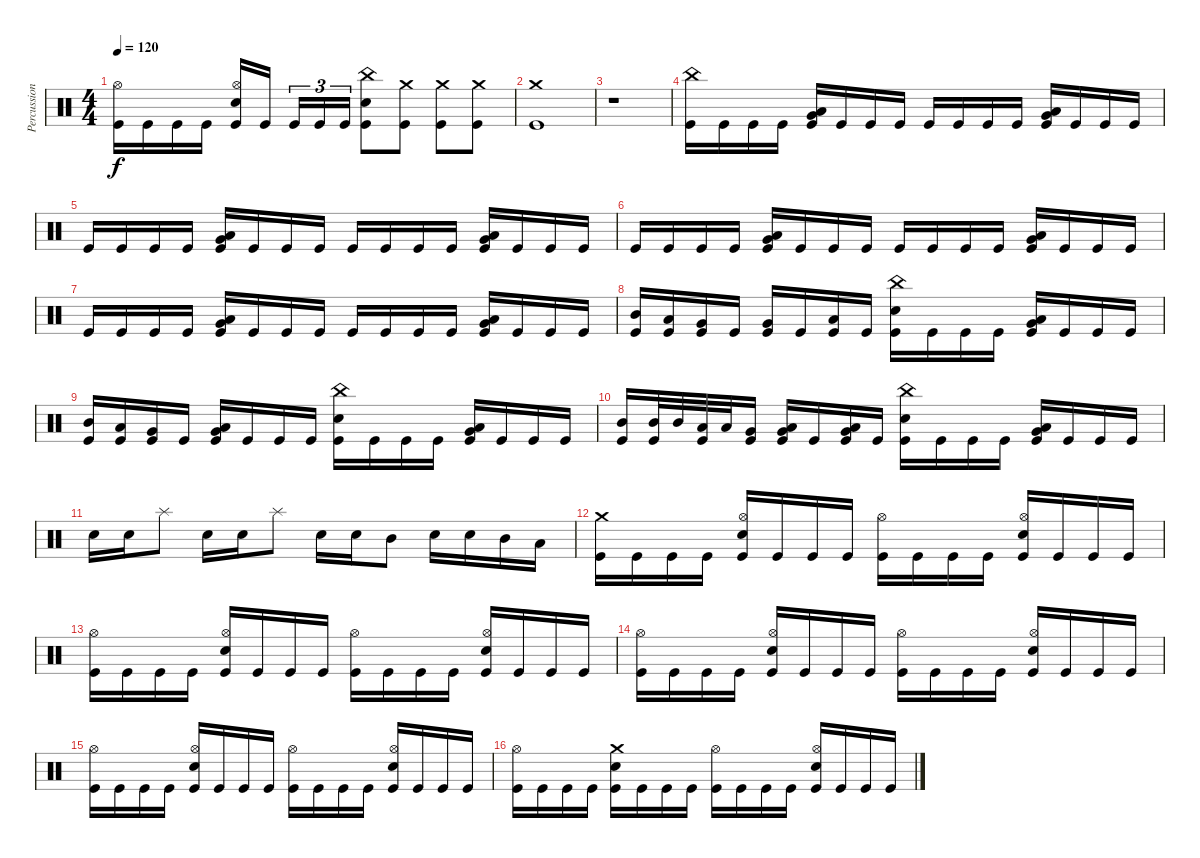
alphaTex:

\track ("Percussions" "Percussion") {instrument percussion}
\staff {score}
\articulation defaults
\ts (4 4)
\tempo 120
\clef neutral
\ks c
("Kick (hit)" "Hi-Hat (open)").16{dy f} "Kick (hit)".16 "Kick (hit)".16 "Kick (hit)".16 ("Kick (hit)" "Electric Snare (hit)" "Hi-Hat (open)").16 "Kick (hit)".16 "Kick (hit)".16{tu (3 2)} "Kick (hit)".16{tu (3 2)} "Kick (hit)".16{tu (3 2)} ("Kick (hit)" "Electric Snare (hit)" "China (hit)").8 ("Kick (hit)" "Crash medium (hit)").8 ("Kick (hit)" "Crash medium (hit)").8 ("Kick (hit)" "Crash medium (hit)").8 |
("Kick (hit)" "Crash medium (hit)").1 |
r.1 |
("Kick (hit)" "China (hit)").16 "Kick (hit)".16 "Kick (hit)".16 "Kick (hit)".16 ("Kick (hit)" "Low Floor Tom (hit)" "Very Low Tom (hit)").16 "Kick (hit)".16 "Kick (hit)".16 "Kick (hit)".16 "Kick (hit)".16 "Kick (hit)".16 "Kick (hit)".16 "Kick (hit)".16 ("Kick (hit)" "Low Floor Tom (hit)" "Very Low Tom (hit)").16 "Kick (hit)".16 "Kick (hit)".16 "Kick (hit)".16 |
"Kick (hit)".16 "Kick (hit)".16 "Kick (hit)".16 "Kick (hit)".16 ("Kick (hit)" "Low Floor Tom (hit)" "Very Low Tom (hit)").16 "Kick (hit)".16 "Kick (hit)".16 "Kick (hit)".16 "Kick (hit)".16 "Kick (hit)".16 "Kick (hit)".16 "Kick (hit)".16 ("Kick (hit)" "Low Floor Tom (hit)" "Very Low Tom (hit)").16 "Kick (hit)".16 "Kick (hit)".16 "Kick (hit)".16 |
"Kick (hit)".16 "Kick (hit)".16 "Kick (hit)".16 "Kick (hit)".16 ("Kick (hit)" "Low Floor Tom (hit)" "Very Low Tom (hit)").16 "Kick (hit)".16 "Kick (hit)".16 "Kick (hit)".16 "Kick (hit)".16 "Kick (hit)".16 "Kick (hit)".16 "Kick (hit)".16 ("Kick (hit)" "Low Floor Tom (hit)" "Very Low Tom (hit)").16 "Kick (hit)".16 "Kick (hit)".16 "Kick (hit)".16 |
"Kick (hit)".16 "Kick (hit)".16 "Kick (hit)".16 "Kick (hit)".16 ("Kick (hit)" "Low Floor Tom (hit)" "Very Low Tom (hit)").16 "Kick (hit)".16 "Kick (hit)".16 "Kick (hit)".16 "Kick (hit)".16 "Kick (hit)".16 "Kick (hit)".16 "Kick (hit)".16 ("Kick (hit)" "Low Floor Tom (hit)" "Very Low Tom (hit)").16 "Kick (hit)".16 "Kick (hit)".16 "Kick (hit)".16 |
("Kick (hit)" "Mid Tom (hit)").16 ("Kick (hit)" "Low Tom (hit)").16 ("Kick (hit)" "Very Low Tom (hit)").16 "Kick (hit)".16 ("Kick (hit)" "Very Low Tom (hit)").16 "Kick (hit)".16 ("Kick (hit)" "Low Floor Tom (hit)").16 "Kick (hit)".16 ("Kick (hit)" "Electric Snare (hit)" "China (hit)").16 "Kick (hit)".16 "Kick (hit)".16 "Kick (hit)".16 ("Kick (hit)" "Low Floor Tom (hit)" "Very Low Tom (hit)").16 "Kick (hit)".16 "Kick (hit)".16 "Kick (hit)".16 |
("Kick (hit)" "Mid Tom (hit)").16 ("Kick (hit)" "Low Tom (hit)").16 ("Kick (hit)" "Very Low Tom (hit)").16 "Kick (hit)".16 ("Kick (hit)" "Low Floor Tom (hit)" "Very Low Tom (hit)").16 "Kick (hit)".16 "Kick (hit)".16 "Kick (hit)".16 ("Kick (hit)" "Electric Snare (hit)" "China (hit)").16 "Kick (hit)".16 "Kick (hit)".16 "Kick (hit)".16 ("Kick (hit)" "Low Floor Tom (hit)" "Very Low Tom (hit)").16 "Kick (hit)".16 "Kick (hit)".16 "Kick (hit)".16 |
("Kick (hit)" "Mid Tom (hit)").16 ("Kick (hit)" "Mid Tom (hit)").32 "Mid Tom (hit)".32 ("Kick (hit)" "Low Tom (hit)").32 "Low Tom (hit)".32 ("Kick (hit)" "Very Low Tom (hit)").16 ("Kick (hit)" "Low Floor Tom (hit)" "Very Low Tom (hit)").16 "Kick (hit)".16 ("Kick (hit)" "Low Floor Tom (hit)" "Very Low Tom (hit)").16 "Kick (hit)".16 ("Kick (hit)" "Electric Snare (hit)" "China (hit)").16 "Kick (hit)".16 "Kick (hit)".16 "Kick (hit)".16 ("Kick (hit)" "Low Floor Tom (hit)" "Very Low Tom (hit)").16 "Kick (hit)".16 "Kick (hit)".16 "Kick (hit)".16 |
"Electric Snare (hit)".16 "Electric Snare (hit)".16 "Splash (hit)".8 "Electric Snare (hit)".16 "Electric Snare (hit)".16 "Splash (hit)".8 "Electric Snare (hit)".16 "Electric Snare (hit)".16 "Mid Tom (hit)".8 "Electric Snare (hit)".16 "Electric Snare (hit)".16 "Mid Tom (hit)".16 "Low Tom (hit)".16 |
("Kick (hit)" "Crash medium (hit)").16 "Kick (hit)".16 "Kick (hit)".16 "Kick (hit)".16 ("Kick (hit)" "Electric Snare (hit)" "Hi-Hat (open)").16 "Kick (hit)".16 "Kick (hit)".16 "Kick (hit)".16 ("Kick (hit)" "Hi-Hat (open)").16 "Kick (hit)".16 "Kick (hit)".16 "Kick (hit)".16 ("Kick (hit)" "Electric Snare (hit)" "Hi-Hat (open)").16 "Kick (hit)".16 "Kick (hit)".16 "Kick (hit)".16 |
("Kick (hit)" "Hi-Hat (open)").16 "Kick (hit)".16 "Kick (hit)".16 "Kick (hit)".16 ("Kick (hit)" "Electric Snare (hit)" "Hi-Hat (open)").16 "Kick (hit)".16 "Kick (hit)".16 "Kick (hit)".16 ("Kick (hit)" "Hi-Hat (open)").16 "Kick (hit)".16 "Kick (hit)".16 "Kick (hit)".16 ("Kick (hit)" "Electric Snare (hit)" "Hi-Hat (open)").16 "Kick (hit)".16 "Kick (hit)".16 "Kick (hit)".16 |
("Kick (hit)" "Hi-Hat (open)").16 "Kick (hit)".16 "Kick (hit)".16 "Kick (hit)".16 ("Kick (hit)" "Electric Snare (hit)" "Hi-Hat (open)").16 "Kick (hit)".16 "Kick (hit)".16 "Kick (hit)".16 ("Kick (hit)" "Hi-Hat (open)").16 "Kick (hit)".16 "Kick (hit)".16 "Kick (hit)".16 ("Kick (hit)" "Electric Snare (hit)" "Hi-Hat (open)").16 "Kick (hit)".16 "Kick (hit)".16 "Kick (hit)".16 |
("Kick (hit)" "Hi-Hat (open)").16 "Kick (hit)".16 "Kick (hit)".16 "Kick (hit)".16 ("Kick (hit)" "Electric Snare (hit)" "Hi-Hat (open)").16 "Kick (hit)".16 "Kick (hit)".16 "Kick (hit)".16 ("Kick (hit)" "Hi-Hat (open)").16 "Kick (hit)".16 "Kick (hit)".16 "Kick (hit)".16 ("Kick (hit)" "Electric Snare (hit)" "Hi-Hat (open)").16 "Kick (hit)".16 "Kick (hit)".16 "Kick (hit)".16 |
("Kick (hit)" "Hi-Hat (open)").16 "Kick (hit)".16 "Kick (hit)".16 "Kick (hit)".16 ("Kick (hit)" "Electric Snare (hit)" "Crash medium (hit)").16 "Kick (hit)".16 "Kick (hit)".16 "Kick (hit)".16 ("Kick (hit)" "Hi-Hat (open)").16 "Kick (hit)".16 "Kick (hit)".16 "Kick (hit)".16 ("Kick (hit)" "Electric Snare (hit)" "Hi-Hat (open)").16 "Kick (hit)".16 "Kick (hit)".16 "Kick (hit)".16
